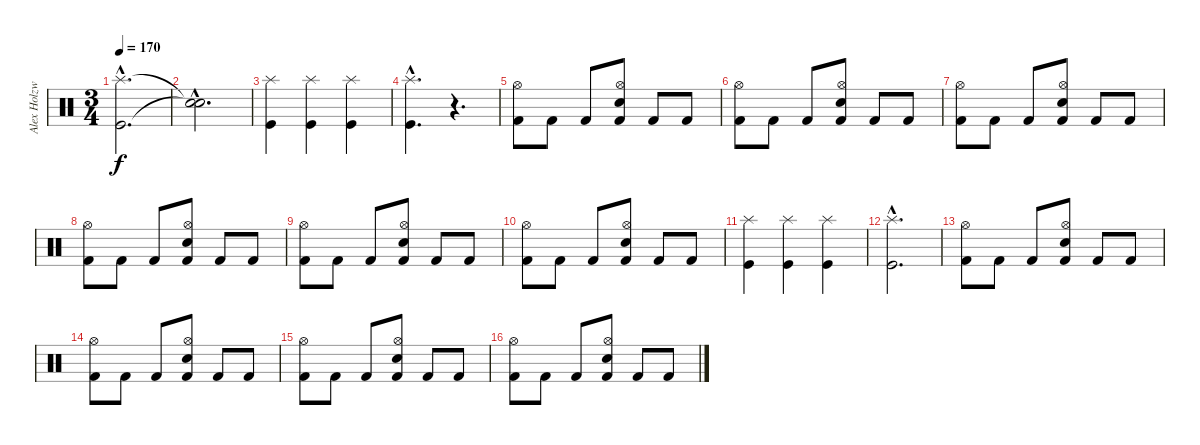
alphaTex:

\track ("Alex Holzwarth - Drums" "Alex Holzw") {instrument percussion}
\staff {score}
\articulation defaults
\ts (3 4)
\tempo 170
\clef neutral
\ks c
("Splash (hit)"{hac} "Kick (hit)"{hac}).2{d dy f} |
("Snare (hit)"{hac t} "Snare (hit)"{hac t}).2{d} |
("Splash (hit)" "Kick (hit)").4 ("Splash (hit)" "Kick (hit)").4 ("Splash (hit)" "Kick (hit)").4 |
("Splash (hit)"{hac} "Kick (hit)"{hac}).4{d} r.4{d} |
("Hi-Hat (open)" "Kick (hit) 2").8 "Kick (hit) 2".8 "Kick (hit) 2".8 ("Hi-Hat (open)" "Snare (hit) 2" "Kick (hit) 2").8 "Kick (hit) 2".8 "Kick (hit) 2".8 |
("Hi-Hat (open)" "Kick (hit) 2").8 "Kick (hit) 2".8 "Kick (hit) 2".8 ("Hi-Hat (open)" "Snare (hit) 2" "Kick (hit) 2").8 "Kick (hit) 2".8 "Kick (hit) 2".8 |
("Hi-Hat (open)" "Kick (hit) 2").8 "Kick (hit) 2".8 "Kick (hit) 2".8 ("Hi-Hat (open)" "Snare (hit) 2" "Kick (hit) 2").8 "Kick (hit) 2".8 "Kick (hit) 2".8 |
("Hi-Hat (open)" "Kick (hit) 2").8 "Kick (hit) 2".8 "Kick (hit) 2".8 ("Hi-Hat (open)" "Snare (hit) 2" "Kick (hit) 2").8 "Kick (hit) 2".8 "Kick (hit) 2".8 |
("Hi-Hat (open)" "Kick (hit) 2").8 "Kick (hit) 2".8 "Kick (hit) 2".8 ("Hi-Hat (open)" "Snare (hit) 2" "Kick (hit) 2").8 "Kick (hit) 2".8 "Kick (hit) 2".8 |
("Hi-Hat (open)" "Kick (hit) 2").8 "Kick (hit) 2".8 "Kick (hit) 2".8 ("Hi-Hat (open)" "Snare (hit) 2" "Kick (hit) 2").8 "Kick (hit) 2".8 "Kick (hit) 2".8 |
("Splash (hit)" "Kick (hit)").4 ("Splash (hit)" "Kick (hit)").4 ("Splash (hit)" "Kick (hit)").4 |
("Splash (hit)"{hac} "Kick (hit)"{hac}).2{d} |
("Hi-Hat (open)" "Kick (hit) 2").8 "Kick (hit) 2".8 "Kick (hit) 2".8 ("Hi-Hat (open)" "Snare (hit) 2" "Kick (hit) 2").8 "Kick (hit) 2".8 "Kick (hit) 2".8 |
("Hi-Hat (open)" "Kick (hit) 2").8 "Kick (hit) 2".8 "Kick (hit) 2".8 ("Hi-Hat (open)" "Snare (hit) 2" "Kick (hit) 2").8 "Kick (hit) 2".8 "Kick (hit) 2".8 |
("Hi-Hat (open)" "Kick (hit) 2").8 "Kick (hit) 2".8 "Kick (hit) 2".8 ("Hi-Hat (open)" "Snare (hit) 2" "Kick (hit) 2").8 "Kick (hit) 2".8 "Kick (hit) 2".8 |
("Hi-Hat (open)" "Kick (hit) 2").8 "Kick (hit) 2".8 "Kick (hit) 2".8 ("Hi-Hat (open)" "Snare (hit) 2" "Kick (hit) 2").8 "Kick (hit) 2".8 "Kick (hit) 2".8
